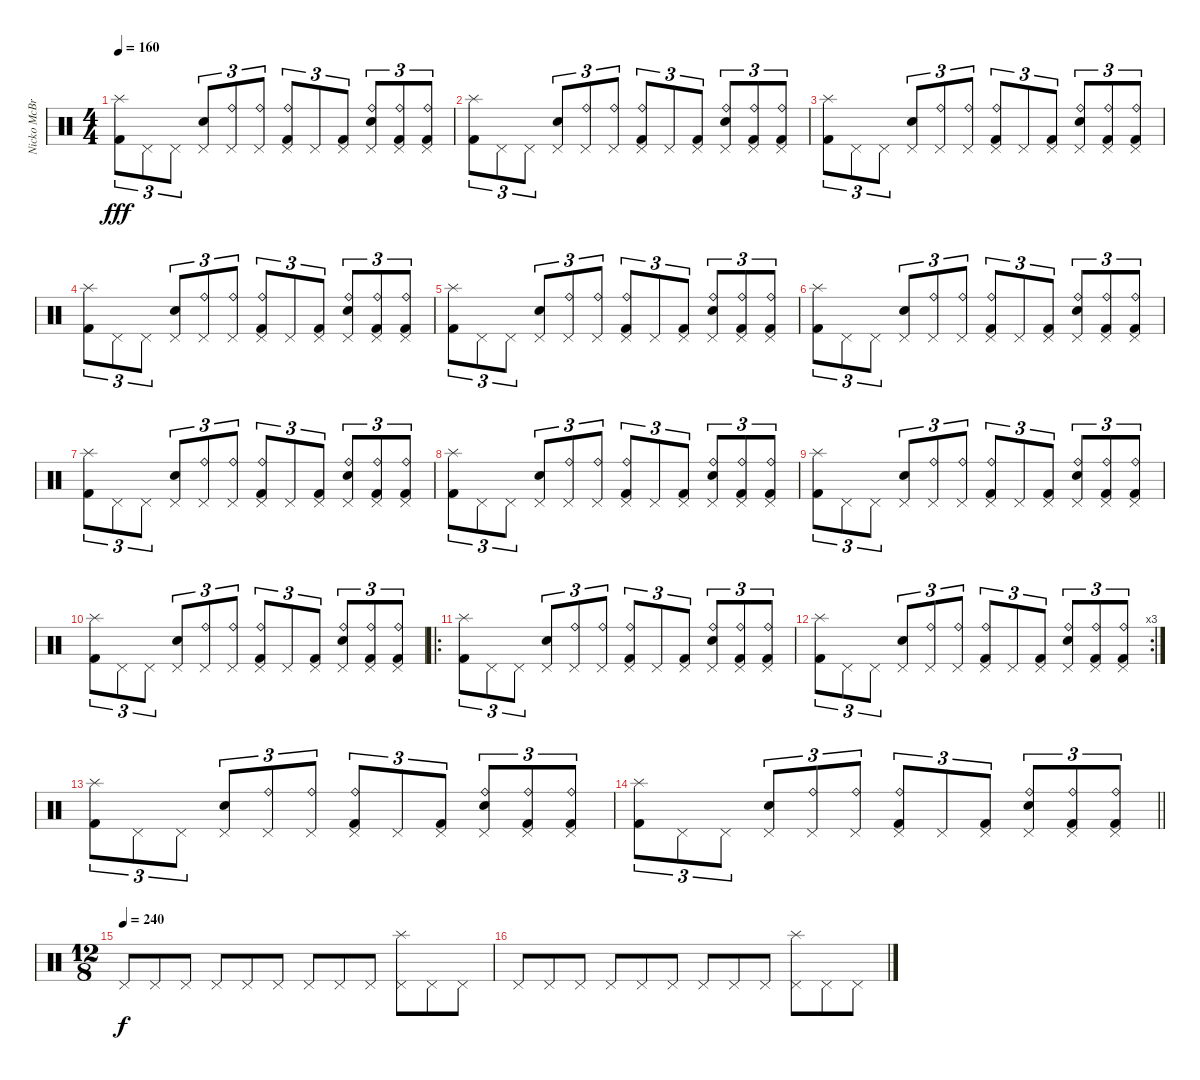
\track ("Nicko McBrian (Drums)" "Nicko McBr") {instrument percussion}
\staff {score}
\articulation defaults
\ts (4 4)
\tempo 160
\clef neutral
\ks c
("Splash (hit)" "Kick (hit) 2").8{tu (3 2) dy fff} "Pedal Hi-Hat (hit)".8{tu (3 2)} "Pedal Hi-Hat (hit)".8{tu (3 2)} ("Pedal Hi-Hat (hit)" "Snare (hit) 2").8{tu (3 2)} ("Pedal Hi-Hat (hit)" "Ride (bell)").8{tu (3 2)} ("Pedal Hi-Hat (hit)" "Ride (bell)").8{tu (3 2)} ("Pedal Hi-Hat (hit)" "Kick (hit) 2" "Ride (bell)").8{tu (3 2)} "Pedal Hi-Hat (hit)".8{tu (3 2)} ("Pedal Hi-Hat (hit)" "Kick (hit) 2").8{tu (3 2)} ("Pedal Hi-Hat (hit)" "Snare (hit) 2" "Ride (bell)").8{tu (3 2)} ("Pedal Hi-Hat (hit)" "Kick (hit) 2" "Ride (bell)").8{tu (3 2)} ("Pedal Hi-Hat (hit)" "Kick (hit) 2" "Ride (bell)").8{tu (3 2)} |
("Splash (hit)" "Kick (hit) 2").8{tu (3 2)} "Pedal Hi-Hat (hit)".8{tu (3 2)} "Pedal Hi-Hat (hit)".8{tu (3 2)} ("Pedal Hi-Hat (hit)" "Snare (hit) 2").8{tu (3 2)} ("Pedal Hi-Hat (hit)" "Ride (bell)").8{tu (3 2)} ("Pedal Hi-Hat (hit)" "Ride (bell)").8{tu (3 2)} ("Pedal Hi-Hat (hit)" "Kick (hit) 2" "Ride (bell)").8{tu (3 2)} "Pedal Hi-Hat (hit)".8{tu (3 2)} ("Pedal Hi-Hat (hit)" "Kick (hit) 2").8{tu (3 2)} ("Pedal Hi-Hat (hit)" "Snare (hit) 2" "Ride (bell)").8{tu (3 2)} ("Pedal Hi-Hat (hit)" "Kick (hit) 2" "Ride (bell)").8{tu (3 2)} ("Pedal Hi-Hat (hit)" "Kick (hit) 2" "Ride (bell)").8{tu (3 2)} |
("Splash (hit)" "Kick (hit) 2").8{tu (3 2)} "Pedal Hi-Hat (hit)".8{tu (3 2)} "Pedal Hi-Hat (hit)".8{tu (3 2)} ("Pedal Hi-Hat (hit)" "Snare (hit) 2").8{tu (3 2)} ("Pedal Hi-Hat (hit)" "Ride (bell)").8{tu (3 2)} ("Pedal Hi-Hat (hit)" "Ride (bell)").8{tu (3 2)} ("Pedal Hi-Hat (hit)" "Kick (hit) 2" "Ride (bell)").8{tu (3 2)} "Pedal Hi-Hat (hit)".8{tu (3 2)} ("Pedal Hi-Hat (hit)" "Kick (hit) 2").8{tu (3 2)} ("Pedal Hi-Hat (hit)" "Snare (hit) 2" "Ride (bell)").8{tu (3 2)} ("Pedal Hi-Hat (hit)" "Kick (hit) 2" "Ride (bell)").8{tu (3 2)} ("Pedal Hi-Hat (hit)" "Kick (hit) 2" "Ride (bell)").8{tu (3 2)} |
("Splash (hit)" "Kick (hit) 2").8{tu (3 2)} "Pedal Hi-Hat (hit)".8{tu (3 2)} "Pedal Hi-Hat (hit)".8{tu (3 2)} ("Pedal Hi-Hat (hit)" "Snare (hit) 2").8{tu (3 2)} ("Pedal Hi-Hat (hit)" "Ride (bell)").8{tu (3 2)} ("Pedal Hi-Hat (hit)" "Ride (bell)").8{tu (3 2)} ("Pedal Hi-Hat (hit)" "Kick (hit) 2" "Ride (bell)").8{tu (3 2)} "Pedal Hi-Hat (hit)".8{tu (3 2)} ("Pedal Hi-Hat (hit)" "Kick (hit) 2").8{tu (3 2)} ("Pedal Hi-Hat (hit)" "Snare (hit) 2" "Ride (bell)").8{tu (3 2)} ("Pedal Hi-Hat (hit)" "Kick (hit) 2" "Ride (bell)").8{tu (3 2)} ("Pedal Hi-Hat (hit)" "Kick (hit) 2" "Ride (bell)").8{tu (3 2)} |
("Splash (hit)" "Kick (hit) 2").8{tu (3 2)} "Pedal Hi-Hat (hit)".8{tu (3 2)} "Pedal Hi-Hat (hit)".8{tu (3 2)} ("Pedal Hi-Hat (hit)" "Snare (hit) 2").8{tu (3 2)} ("Pedal Hi-Hat (hit)" "Ride (bell)").8{tu (3 2)} ("Pedal Hi-Hat (hit)" "Ride (bell)").8{tu (3 2)} ("Pedal Hi-Hat (hit)" "Kick (hit) 2" "Ride (bell)").8{tu (3 2)} "Pedal Hi-Hat (hit)".8{tu (3 2)} ("Pedal Hi-Hat (hit)" "Kick (hit) 2").8{tu (3 2)} ("Pedal Hi-Hat (hit)" "Snare (hit) 2" "Ride (bell)").8{tu (3 2)} ("Pedal Hi-Hat (hit)" "Kick (hit) 2" "Ride (bell)").8{tu (3 2)} ("Pedal Hi-Hat (hit)" "Kick (hit) 2" "Ride (bell)").8{tu (3 2)} |
("Splash (hit)" "Kick (hit) 2").8{tu (3 2)} "Pedal Hi-Hat (hit)".8{tu (3 2)} "Pedal Hi-Hat (hit)".8{tu (3 2)} ("Pedal Hi-Hat (hit)" "Snare (hit) 2").8{tu (3 2)} ("Pedal Hi-Hat (hit)" "Ride (bell)").8{tu (3 2)} ("Pedal Hi-Hat (hit)" "Ride (bell)").8{tu (3 2)} ("Pedal Hi-Hat (hit)" "Kick (hit) 2" "Ride (bell)").8{tu (3 2)} "Pedal Hi-Hat (hit)".8{tu (3 2)} ("Pedal Hi-Hat (hit)" "Kick (hit) 2").8{tu (3 2)} ("Pedal Hi-Hat (hit)" "Snare (hit) 2" "Ride (bell)").8{tu (3 2)} ("Pedal Hi-Hat (hit)" "Kick (hit) 2" "Ride (bell)").8{tu (3 2)} ("Pedal Hi-Hat (hit)" "Kick (hit) 2" "Ride (bell)").8{tu (3 2)} |
("Splash (hit)" "Kick (hit) 2").8{tu (3 2)} "Pedal Hi-Hat (hit)".8{tu (3 2)} "Pedal Hi-Hat (hit)".8{tu (3 2)} ("Pedal Hi-Hat (hit)" "Snare (hit) 2").8{tu (3 2)} ("Pedal Hi-Hat (hit)" "Ride (bell)").8{tu (3 2)} ("Pedal Hi-Hat (hit)" "Ride (bell)").8{tu (3 2)} ("Pedal Hi-Hat (hit)" "Kick (hit) 2" "Ride (bell)").8{tu (3 2)} "Pedal Hi-Hat (hit)".8{tu (3 2)} ("Pedal Hi-Hat (hit)" "Kick (hit) 2").8{tu (3 2)} ("Pedal Hi-Hat (hit)" "Snare (hit) 2" "Ride (bell)").8{tu (3 2)} ("Pedal Hi-Hat (hit)" "Kick (hit) 2" "Ride (bell)").8{tu (3 2)} ("Pedal Hi-Hat (hit)" "Kick (hit) 2" "Ride (bell)").8{tu (3 2)} |
("Splash (hit)" "Kick (hit) 2").8{tu (3 2)} "Pedal Hi-Hat (hit)".8{tu (3 2)} "Pedal Hi-Hat (hit)".8{tu (3 2)} ("Pedal Hi-Hat (hit)" "Snare (hit) 2").8{tu (3 2)} ("Pedal Hi-Hat (hit)" "Ride (bell)").8{tu (3 2)} ("Pedal Hi-Hat (hit)" "Ride (bell)").8{tu (3 2)} ("Pedal Hi-Hat (hit)" "Kick (hit) 2" "Ride (bell)").8{tu (3 2)} "Pedal Hi-Hat (hit)".8{tu (3 2)} ("Pedal Hi-Hat (hit)" "Kick (hit) 2").8{tu (3 2)} ("Pedal Hi-Hat (hit)" "Snare (hit) 2" "Ride (bell)").8{tu (3 2)} ("Pedal Hi-Hat (hit)" "Kick (hit) 2" "Ride (bell)").8{tu (3 2)} ("Pedal Hi-Hat (hit)" "Kick (hit) 2" "Ride (bell)").8{tu (3 2)} |
("Splash (hit)" "Kick (hit) 2").8{tu (3 2)} "Pedal Hi-Hat (hit)".8{tu (3 2)} "Pedal Hi-Hat (hit)".8{tu (3 2)} ("Pedal Hi-Hat (hit)" "Snare (hit) 2").8{tu (3 2)} ("Pedal Hi-Hat (hit)" "Ride (bell)").8{tu (3 2)} ("Pedal Hi-Hat (hit)" "Ride (bell)").8{tu (3 2)} ("Pedal Hi-Hat (hit)" "Kick (hit) 2" "Ride (bell)").8{tu (3 2)} "Pedal Hi-Hat (hit)".8{tu (3 2)} ("Pedal Hi-Hat (hit)" "Kick (hit) 2").8{tu (3 2)} ("Pedal Hi-Hat (hit)" "Snare (hit) 2" "Ride (bell)").8{tu (3 2)} ("Pedal Hi-Hat (hit)" "Kick (hit) 2" "Ride (bell)").8{tu (3 2)} ("Pedal Hi-Hat (hit)" "Kick (hit) 2" "Ride (bell)").8{tu (3 2)} |
("Splash (hit)" "Kick (hit) 2").8{tu (3 2)} "Pedal Hi-Hat (hit)".8{tu (3 2)} "Pedal Hi-Hat (hit)".8{tu (3 2)} ("Pedal Hi-Hat (hit)" "Snare (hit) 2").8{tu (3 2)} ("Pedal Hi-Hat (hit)" "Ride (bell)").8{tu (3 2)} ("Pedal Hi-Hat (hit)" "Ride (bell)").8{tu (3 2)} ("Pedal Hi-Hat (hit)" "Kick (hit) 2" "Ride (bell)").8{tu (3 2)} "Pedal Hi-Hat (hit)".8{tu (3 2)} ("Pedal Hi-Hat (hit)" "Kick (hit) 2").8{tu (3 2)} ("Pedal Hi-Hat (hit)" "Snare (hit) 2" "Ride (bell)").8{tu (3 2)} ("Pedal Hi-Hat (hit)" "Kick (hit) 2" "Ride (bell)").8{tu (3 2)} ("Pedal Hi-Hat (hit)" "Kick (hit) 2" "Ride (bell)").8{tu (3 2)} |
\ro
("Splash (hit)" "Kick (hit) 2").8{tu (3 2)} "Pedal Hi-Hat (hit)".8{tu (3 2)} "Pedal Hi-Hat (hit)".8{tu (3 2)} ("Pedal Hi-Hat (hit)" "Snare (hit) 2").8{tu (3 2)} ("Pedal Hi-Hat (hit)" "Ride (bell)").8{tu (3 2)} ("Pedal Hi-Hat (hit)" "Ride (bell)").8{tu (3 2)} ("Pedal Hi-Hat (hit)" "Kick (hit) 2" "Ride (bell)").8{tu (3 2)} "Pedal Hi-Hat (hit)".8{tu (3 2)} ("Pedal Hi-Hat (hit)" "Kick (hit) 2").8{tu (3 2)} ("Pedal Hi-Hat (hit)" "Snare (hit) 2" "Ride (bell)").8{tu (3 2)} ("Pedal Hi-Hat (hit)" "Kick (hit) 2" "Ride (bell)").8{tu (3 2)} ("Pedal Hi-Hat (hit)" "Kick (hit) 2" "Ride (bell)").8{tu (3 2)} |
\rc 3
("Splash (hit)" "Kick (hit) 2").8{tu (3 2)} "Pedal Hi-Hat (hit)".8{tu (3 2)} "Pedal Hi-Hat (hit)".8{tu (3 2)} ("Pedal Hi-Hat (hit)" "Snare (hit) 2").8{tu (3 2)} ("Pedal Hi-Hat (hit)" "Ride (bell)").8{tu (3 2)} ("Pedal Hi-Hat (hit)" "Ride (bell)").8{tu (3 2)} ("Pedal Hi-Hat (hit)" "Kick (hit) 2" "Ride (bell)").8{tu (3 2)} "Pedal Hi-Hat (hit)".8{tu (3 2)} ("Pedal Hi-Hat (hit)" "Kick (hit) 2").8{tu (3 2)} ("Pedal Hi-Hat (hit)" "Snare (hit) 2" "Ride (bell)").8{tu (3 2)} ("Pedal Hi-Hat (hit)" "Kick (hit) 2" "Ride (bell)").8{tu (3 2)} ("Pedal Hi-Hat (hit)" "Kick (hit) 2" "Ride (bell)").8{tu (3 2)} |
("Splash (hit)" "Kick (hit) 2").8{tu (3 2)} "Pedal Hi-Hat (hit)".8{tu (3 2)} "Pedal Hi-Hat (hit)".8{tu (3 2)} ("Pedal Hi-Hat (hit)" "Snare (hit) 2").8{tu (3 2)} ("Pedal Hi-Hat (hit)" "Ride (bell)").8{tu (3 2)} ("Pedal Hi-Hat (hit)" "Ride (bell)").8{tu (3 2)} ("Pedal Hi-Hat (hit)" "Kick (hit) 2" "Ride (bell)").8{tu (3 2)} "Pedal Hi-Hat (hit)".8{tu (3 2)} ("Pedal Hi-Hat (hit)" "Kick (hit) 2").8{tu (3 2)} ("Pedal Hi-Hat (hit)" "Snare (hit) 2" "Ride (bell)").8{tu (3 2)} ("Pedal Hi-Hat (hit)" "Kick (hit) 2" "Ride (bell)").8{tu (3 2)} ("Pedal Hi-Hat (hit)" "Kick (hit) 2" "Ride (bell)").8{tu (3 2)} |
\barLineRight lightlight
("Splash (hit)" "Kick (hit) 2").8{tu (3 2)} "Pedal Hi-Hat (hit)".8{tu (3 2)} "Pedal Hi-Hat (hit)".8{tu (3 2)} ("Pedal Hi-Hat (hit)" "Snare (hit) 2").8{tu (3 2)} ("Pedal Hi-Hat (hit)" "Ride (bell)").8{tu (3 2)} ("Pedal Hi-Hat (hit)" "Ride (bell)").8{tu (3 2)} ("Pedal Hi-Hat (hit)" "Kick (hit) 2" "Ride (bell)").8{tu (3 2)} "Pedal Hi-Hat (hit)".8{tu (3 2)} ("Pedal Hi-Hat (hit)" "Kick (hit) 2").8{tu (3 2)} ("Pedal Hi-Hat (hit)" "Snare (hit) 2" "Ride (bell)").8{tu (3 2)} ("Pedal Hi-Hat (hit)" "Kick (hit) 2" "Ride (bell)").8{tu (3 2)} ("Pedal Hi-Hat (hit)" "Kick (hit) 2" "Ride (bell)").8{tu (3 2)} |
\ts (12 8)
\tempo (240)
"Pedal Hi-Hat (hit)".8{dy f} "Pedal Hi-Hat (hit)".8 "Pedal Hi-Hat (hit)".8 "Pedal Hi-Hat (hit)".8 "Pedal Hi-Hat (hit)".8 "Pedal Hi-Hat (hit)".8 "Pedal Hi-Hat (hit)".8 "Pedal Hi-Hat (hit)".8 "Pedal Hi-Hat (hit)".8 ("Pedal Hi-Hat (hit)" "Splash (hit)").8 "Pedal Hi-Hat (hit)".8 "Pedal Hi-Hat (hit)".8 |
"Pedal Hi-Hat (hit)".8 "Pedal Hi-Hat (hit)".8 "Pedal Hi-Hat (hit)".8 "Pedal Hi-Hat (hit)".8 "Pedal Hi-Hat (hit)".8 "Pedal Hi-Hat (hit)".8 "Pedal Hi-Hat (hit)".8 "Pedal Hi-Hat (hit)".8 "Pedal Hi-Hat (hit)".8 ("Pedal Hi-Hat (hit)" "Splash (hit)").8 "Pedal Hi-Hat (hit)".8 "Pedal Hi-Hat (hit)".8
